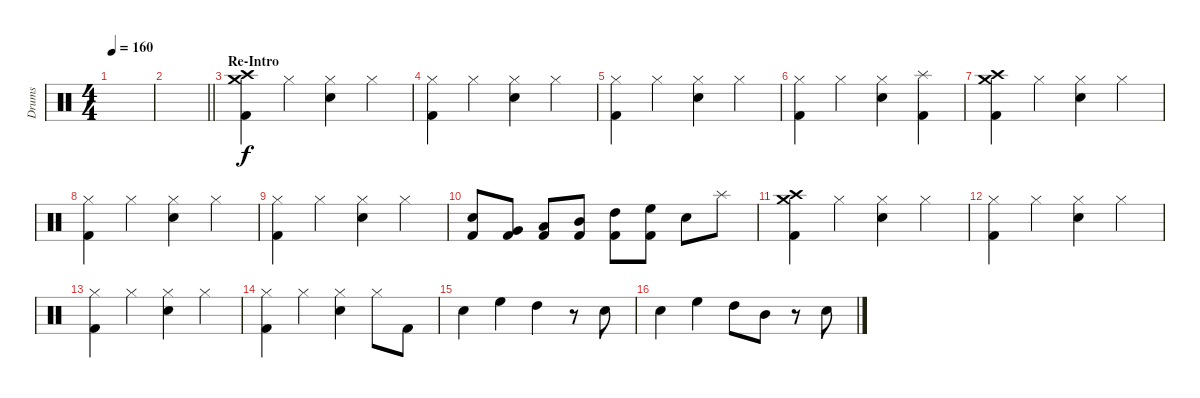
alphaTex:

\track ("Drums" "Drums") {instrument percussion}
\staff {score}
\articulation defaults
\ts (4 4)
\tempo 160
\clef neutral
\ks c
|
\barLineRight lightlight
|
\section ("" "Re-Intro")
("Kick (hit) 2" "Crash high (hit)" "Crash medium (hit)").4 "Hi-Hat (closed)".4 ("Hi-Hat (closed)" "Electric Snare (hit)").4 "Hi-Hat (closed)".4 |
("Kick (hit) 2" "Hi-Hat (closed)").4 "Hi-Hat (closed)".4 ("Hi-Hat (closed)" "Electric Snare (hit)").4 "Hi-Hat (closed)".4 |
("Kick (hit) 2" "Hi-Hat (closed)").4 "Hi-Hat (closed)".4 ("Hi-Hat (closed)" "Electric Snare (hit)").4 "Hi-Hat (closed)".4 |
("Kick (hit) 2" "Hi-Hat (closed)").4 "Hi-Hat (closed)".4 ("Hi-Hat (closed)" "Electric Snare (hit)").4 ("Kick (hit) 2" "Splash (hit)").4 |
("Kick (hit) 2" "Crash high (hit)" "Crash medium (hit)").4 "Hi-Hat (closed)".4 ("Hi-Hat (closed)" "Electric Snare (hit)").4 "Hi-Hat (closed)".4 |
("Kick (hit) 2" "Hi-Hat (closed)").4 "Hi-Hat (closed)".4 ("Hi-Hat (closed)" "Electric Snare (hit)").4 "Hi-Hat (closed)".4 |
("Kick (hit) 2" "Hi-Hat (closed)").4 "Hi-Hat (closed)".4 ("Hi-Hat (closed)" "Electric Snare (hit)").4 "Hi-Hat (closed)".4 |
("Kick (hit) 2" "Electric Snare (hit)").8 ("Kick (hit) 2" "Very Low Tom (hit)").8 ("Kick (hit) 2" "Low Tom (hit)").8 ("Kick (hit) 2" "Mid Tom (hit)").8 ("Kick (hit) 2" "High Tom (hit)").8 ("Kick (hit) 2" "High Floor Tom (hit)").8 "Electric Snare (hit)".8 "Splash (hit)".8 |
("Kick (hit) 2" "Crash high (hit)" "Crash medium (hit)").4 "Hi-Hat (closed)".4 ("Hi-Hat (closed)" "Electric Snare (hit)").4 "Hi-Hat (closed)".4 |
("Kick (hit) 2" "Hi-Hat (closed)").4 "Hi-Hat (closed)".4 ("Hi-Hat (closed)" "Electric Snare (hit)").4 "Hi-Hat (closed)".4 |
("Kick (hit) 2" "Hi-Hat (closed)").4 "Hi-Hat (closed)".4 ("Hi-Hat (closed)" "Electric Snare (hit)").4 "Hi-Hat (closed)".4 |
("Kick (hit) 2" "Hi-Hat (closed)").4 "Hi-Hat (closed)".4 ("Hi-Hat (closed)" "Electric Snare (hit)").4 "Hi-Hat (closed)".8 "Kick (hit) 2".8 |
"Electric Snare (hit)".4 "High Floor Tom (hit)".4 "High Tom (hit)".4 r.8 "Electric Snare (hit)".8 |
"Electric Snare (hit)".4 "High Floor Tom (hit)".4 "High Tom (hit)".8 "Mid Tom (hit)".8 r.8 "Electric Snare (hit)".8
